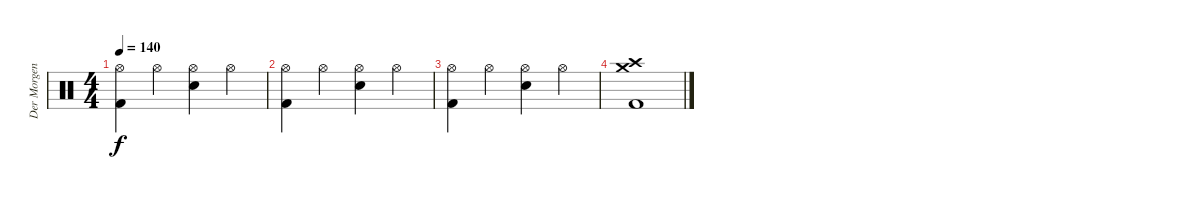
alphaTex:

\track ("Der Morgenstern" "Der Morgen") {instrument percussion}
\staff {score}
\articulation defaults
\ts (4 4)
\tempo 140
\clef neutral
\ks c
("Hi-Hat (open)" "Kick (hit) 2").4{dy f} "Hi-Hat (open)".4 ("Hi-Hat (open)" "Electric Snare (hit)").4 "Hi-Hat (open)".4 |
("Hi-Hat (open)" "Kick (hit) 2").4 "Hi-Hat (open)".4 ("Hi-Hat (open)" "Electric Snare (hit)").4 "Hi-Hat (open)".4 |
("Hi-Hat (open)" "Kick (hit) 2").4 "Hi-Hat (open)".4 ("Hi-Hat (open)" "Electric Snare (hit)").4 "Hi-Hat (open)".4 |
("Crash high (hit)" "Crash medium (hit)" "Kick (hit) 2").1
